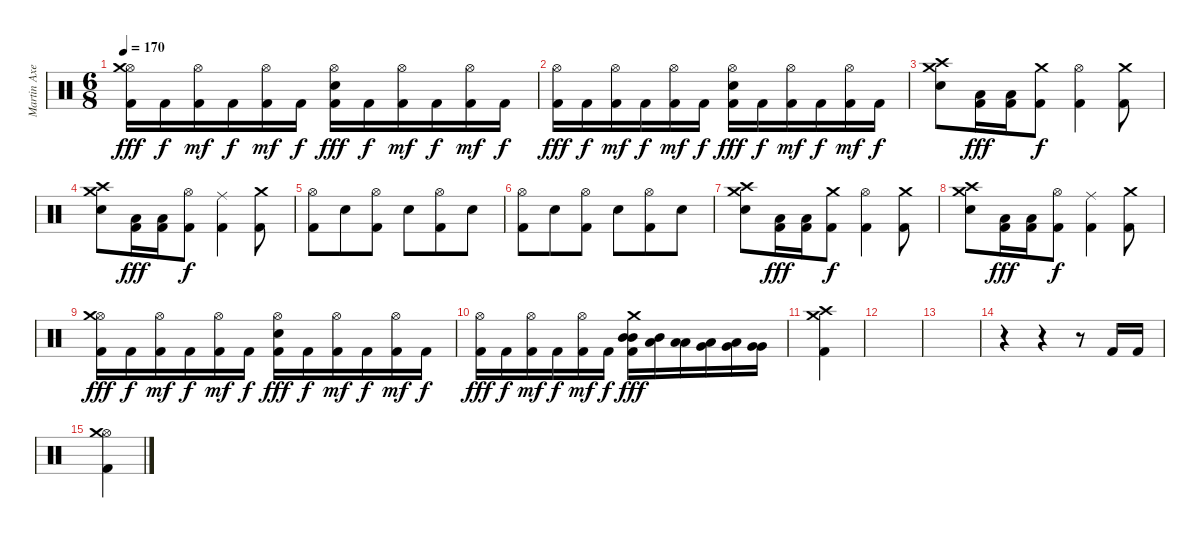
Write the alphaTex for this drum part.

\track ("Martin Axenrot" "Martin Axe") {instrument percussion}
\staff
\articulation defaults
\ts (6 8)
\tempo 170
\clef neutral
\ks c
("Hi-Hat (open)" "Crash medium (hit)" "Kick (hit) 2").16{dy fff} "Kick (hit) 2".16{dy f} ("Hi-Hat (open)" "Kick (hit) 2").16{dy mf} "Kick (hit) 2".16{dy f} ("Hi-Hat (open)" "Kick (hit) 2").16{dy mf} "Kick (hit) 2".16{dy f} ("Hi-Hat (open)" "Snare (hit) 2" "Kick (hit) 2").16{dy fff} "Kick (hit) 2".16{dy f} ("Hi-Hat (open)" "Kick (hit) 2").16{dy mf} "Kick (hit) 2".16{dy f} ("Hi-Hat (open)" "Kick (hit) 2").16{dy mf} "Kick (hit) 2".16{dy f} |
("Hi-Hat (open)" "Kick (hit) 2").16{dy fff} "Kick (hit) 2".16{dy f} ("Hi-Hat (open)" "Kick (hit) 2").16{dy mf} "Kick (hit) 2".16{dy f} ("Hi-Hat (open)" "Kick (hit) 2").16{dy mf} "Kick (hit) 2".16{dy f} ("Hi-Hat (open)" "Snare (hit) 2" "Kick (hit) 2").16{dy fff} "Kick (hit) 2".16{dy f} ("Hi-Hat (open)" "Kick (hit) 2").16{dy mf} "Kick (hit) 2".16{dy f} ("Hi-Hat (open)" "Kick (hit) 2").16{dy mf} "Kick (hit) 2".16{dy f} |
("Crash high (hit)" "Crash medium (hit)" "Snare (hit) 2").8 ("Low Tom (hit)" "Kick (hit) 2").16{dy fff} ("Low Tom (hit)" "Kick (hit) 2").16 ("Crash medium (hit)" "Kick (hit) 2").8{dy f} ("Hi-Hat (open)" "Kick (hit) 2").4 ("Crash medium (hit)" "Kick (hit) 2").8 |
("Crash high (hit)" "Crash medium (hit)" "Snare (hit) 2").8 ("Low Tom (hit)" "Kick (hit) 2").16{dy fff} ("Low Tom (hit)" "Kick (hit) 2").16 ("Hi-Hat (open)" "Kick (hit) 2").8{dy f} ("Ride (middle)" "Kick (hit) 2").4 ("Crash medium (hit)" "Kick (hit) 2").8 |
("Hi-Hat (open)" "Kick (hit) 2").8 "Snare (hit) 2".8 ("Hi-Hat (open)" "Kick (hit) 2").8 "Snare (hit) 2".8 ("Hi-Hat (open)" "Kick (hit) 2").8 "Snare (hit) 2".8 |
("Hi-Hat (open)" "Kick (hit) 2").8 "Snare (hit) 2".8 ("Hi-Hat (open)" "Kick (hit) 2").8 "Snare (hit) 2".8 ("Hi-Hat (open)" "Kick (hit) 2").8 "Snare (hit) 2".8 |
("Crash high (hit)" "Crash medium (hit)" "Snare (hit) 2").8 ("Low Tom (hit)" "Kick (hit) 2").16{dy fff} ("Low Tom (hit)" "Kick (hit) 2").16 ("Crash medium (hit)" "Kick (hit) 2").8{dy f} ("Hi-Hat (open)" "Kick (hit) 2").4 ("Crash medium (hit)" "Kick (hit) 2").8 |
("Crash high (hit)" "Crash medium (hit)" "Snare (hit) 2").8 ("Low Tom (hit)" "Kick (hit) 2").16{dy fff} ("Low Tom (hit)" "Kick (hit) 2").16 ("Hi-Hat (open)" "Kick (hit) 2").8{dy f} ("Ride (middle)" "Kick (hit) 2").4 ("Crash medium (hit)" "Kick (hit) 2").8 |
("Hi-Hat (open)" "Crash medium (hit)" "Kick (hit) 2").16{dy fff} "Kick (hit) 2".16{dy f} ("Hi-Hat (open)" "Kick (hit) 2").16{dy mf} "Kick (hit) 2".16{dy f} ("Hi-Hat (open)" "Kick (hit) 2").16{dy mf} "Kick (hit) 2".16{dy f} ("Hi-Hat (open)" "Snare (hit) 2" "Kick (hit) 2").16{dy fff} "Kick (hit) 2".16{dy f} ("Hi-Hat (open)" "Kick (hit) 2").16{dy mf} "Kick (hit) 2".16{dy f} ("Hi-Hat (open)" "Kick (hit) 2").16{dy mf} "Kick (hit) 2".16{dy f} |
("Hi-Hat (open)" "Kick (hit) 2").16{dy fff} "Kick (hit) 2".16{dy f} ("Hi-Hat (open)" "Kick (hit) 2").16{dy mf} "Kick (hit) 2".16{dy f} ("Hi-Hat (open)" "Kick (hit) 2").16{dy mf} "Kick (hit) 2".16{dy f} ("Crash medium (hit)" "Mid Tom (hit)" "Mid Tom (hit)" "Kick (hit) 2").16{dy fff} ("Mid Tom (hit)" "Low Tom (hit)").16 ("Low Tom (hit)" "Low Tom (hit)").16 ("Low Tom (hit)" "Very Low Tom (hit)").16 ("Low Tom (hit)" "Very Low Tom (hit)").16 ("Very Low Tom (hit)" "Very Low Tom (hit)").16 |
("Crash high (hit)" "Crash medium (hit)" "Kick (hit) 2").4 |
|
|
r.4 r.4 r.8 "Kick (hit) 2".16 "Kick (hit) 2".16 |
("Hi-Hat (open)" "Crash medium (hit)" "Kick (hit) 2").4
